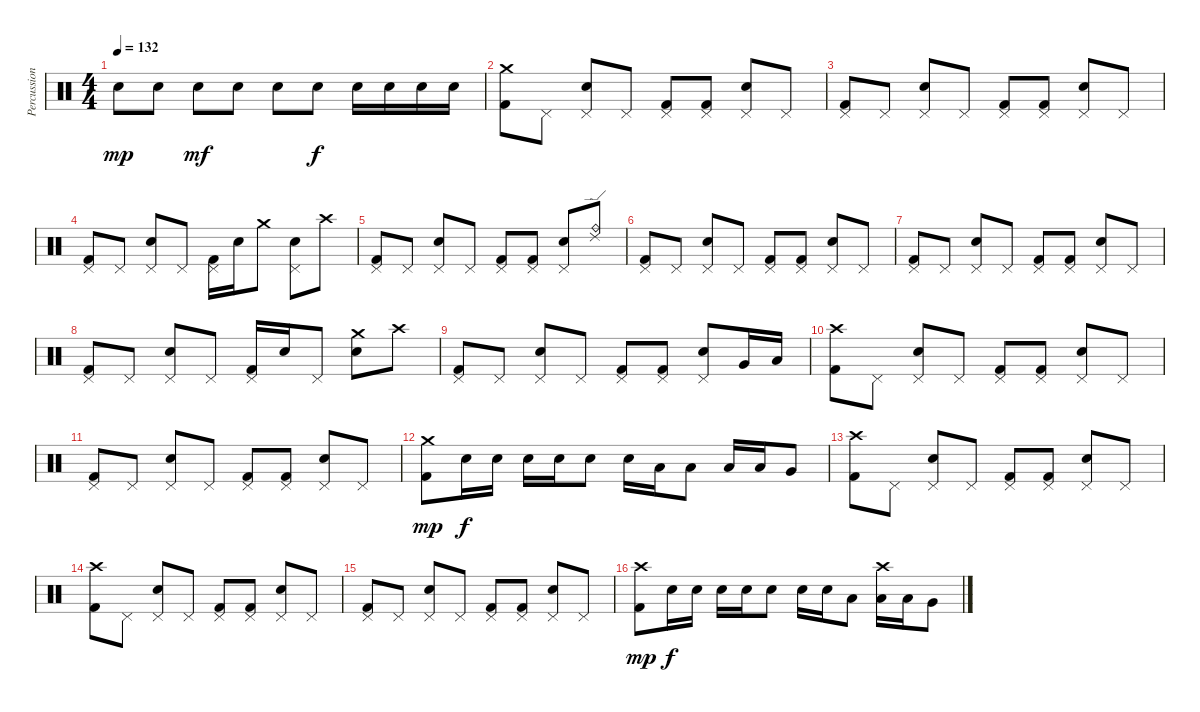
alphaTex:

\track ("Percussions" "Percussion") {instrument percussion}
\staff {score}
\articulation defaults
\ts (4 4)
\tempo 132
\clef neutral
\ks c "Electric Snare (hit)".8{dy mp} "Electric Snare (hit)".8 "Electric Snare (hit)".8{dy mf} "Electric Snare (hit)".8 "Electric Snare (hit)".8 "Electric Snare (hit)".8{dy f} "Electric Snare (hit)".16 "Electric Snare (hit)".16 "Electric Snare (hit)".16 "Electric Snare (hit)".16
|
("Crash medium (hit)" "Kick (hit) 2").8 "Pedal Hi-Hat (hit)".8 ("Pedal Hi-Hat (hit)" "Electric Snare (hit)").8 "Pedal Hi-Hat (hit)".8 ("Pedal Hi-Hat (hit)" "Kick (hit) 2").8 ("Pedal Hi-Hat (hit)" "Kick (hit) 2").8 ("Pedal Hi-Hat (hit)" "Electric Snare (hit)").8 "Pedal Hi-Hat (hit)".8 |
("Pedal Hi-Hat (hit)" "Kick (hit) 2").8 "Pedal Hi-Hat (hit)".8 ("Pedal Hi-Hat (hit)" "Electric Snare (hit)").8 "Pedal Hi-Hat (hit)".8 ("Pedal Hi-Hat (hit)" "Kick (hit) 2").8 ("Pedal Hi-Hat (hit)" "Kick (hit) 2").8 ("Pedal Hi-Hat (hit)" "Electric Snare (hit)").8 "Pedal Hi-Hat (hit)".8 |
("Pedal Hi-Hat (hit)" "Kick (hit) 2").8 "Pedal Hi-Hat (hit)".8 ("Pedal Hi-Hat (hit)" "Electric Snare (hit)").8 "Pedal Hi-Hat (hit)".8 ("Pedal Hi-Hat (hit)" "Kick (hit) 2").16 "Electric Snare (hit)".16 "Crash medium (hit)".8 ("Pedal Hi-Hat (hit)" "Electric Snare (hit)").8 "Crash high (hit)".8 |
("Pedal Hi-Hat (hit)" "Kick (hit) 2").8 "Pedal Hi-Hat (hit)".8 ("Pedal Hi-Hat (hit)" "Electric Snare (hit)").8 "Pedal Hi-Hat (hit)".8 ("Pedal Hi-Hat (hit)" "Kick (hit) 2").8 ("Pedal Hi-Hat (hit)" "Kick (hit) 2").8 ("Pedal Hi-Hat (hit)" "Electric Snare (hit)").8 ("Ride (bell)" "Ride (edge) 2").8 |
("Pedal Hi-Hat (hit)" "Kick (hit) 2").8 "Pedal Hi-Hat (hit)".8 ("Pedal Hi-Hat (hit)" "Electric Snare (hit)").8 "Pedal Hi-Hat (hit)".8 ("Pedal Hi-Hat (hit)" "Kick (hit) 2").8 ("Pedal Hi-Hat (hit)" "Kick (hit) 2").8 ("Pedal Hi-Hat (hit)" "Electric Snare (hit)").8 "Pedal Hi-Hat (hit)".8 |
("Pedal Hi-Hat (hit)" "Kick (hit) 2").8 "Pedal Hi-Hat (hit)".8 ("Pedal Hi-Hat (hit)" "Electric Snare (hit)").8 "Pedal Hi-Hat (hit)".8 ("Pedal Hi-Hat (hit)" "Kick (hit) 2").8 ("Pedal Hi-Hat (hit)" "Kick (hit) 2").8 ("Pedal Hi-Hat (hit)" "Electric Snare (hit)").8 "Pedal Hi-Hat (hit)".8 |
("Pedal Hi-Hat (hit)" "Kick (hit) 2").8 "Pedal Hi-Hat (hit)".8 ("Pedal Hi-Hat (hit)" "Electric Snare (hit)").8 "Pedal Hi-Hat (hit)".8 ("Pedal Hi-Hat (hit)" "Kick (hit) 2").16 "Electric Snare (hit)".16 "Pedal Hi-Hat (hit)".8 ("Crash medium (hit)" "Electric Snare (hit)").8 "Crash high (hit)".8 |
("Pedal Hi-Hat (hit)" "Kick (hit) 2").8 "Pedal Hi-Hat (hit)".8 ("Pedal Hi-Hat (hit)" "Electric Snare (hit)").8 "Pedal Hi-Hat (hit)".8 ("Pedal Hi-Hat (hit)" "Kick (hit) 2").8 ("Pedal Hi-Hat (hit)" "Kick (hit) 2").8 ("Pedal Hi-Hat (hit)" "Electric Snare (hit)").8 "Very Low Tom (hit)".16 "Low Floor Tom (hit)".16 |
("Crash high (hit)" "Kick (hit) 2").8 "Pedal Hi-Hat (hit)".8 ("Pedal Hi-Hat (hit)" "Electric Snare (hit)").8 "Pedal Hi-Hat (hit)".8 ("Pedal Hi-Hat (hit)" "Kick (hit) 2").8 ("Pedal Hi-Hat (hit)" "Kick (hit) 2").8 ("Pedal Hi-Hat (hit)" "Electric Snare (hit)").8 "Pedal Hi-Hat (hit)".8 |
("Pedal Hi-Hat (hit)" "Kick (hit) 2").8 "Pedal Hi-Hat (hit)".8 ("Pedal Hi-Hat (hit)" "Electric Snare (hit)").8 "Pedal Hi-Hat (hit)".8 ("Pedal Hi-Hat (hit)" "Kick (hit) 2").8 ("Pedal Hi-Hat (hit)" "Kick (hit) 2").8 ("Pedal Hi-Hat (hit)" "Electric Snare (hit)").8 "Pedal Hi-Hat (hit)".8 |
("Crash medium (hit)" "Kick (hit) 2").8{dy mp} "Electric Snare (hit)".16{dy f} "Electric Snare (hit)".16 "Electric Snare (hit)".16 "Electric Snare (hit)".16 "Electric Snare (hit)".8 "Electric Snare (hit)".16 "Low Tom (hit)".16 "Low Tom (hit)".8 "Low Tom (hit)".16 "Low Tom (hit)".16 "Very Low Tom (hit)".8 |
("Crash high (hit)" "Kick (hit) 2").8 "Pedal Hi-Hat (hit)".8 ("Pedal Hi-Hat (hit)" "Electric Snare (hit)").8 "Pedal Hi-Hat (hit)".8 ("Pedal Hi-Hat (hit)" "Kick (hit) 2").8 ("Pedal Hi-Hat (hit)" "Kick (hit) 2").8 ("Pedal Hi-Hat (hit)" "Electric Snare (hit)").8 "Pedal Hi-Hat (hit)".8 |
("Crash high (hit)" "Kick (hit) 2").8 "Pedal Hi-Hat (hit)".8 ("Pedal Hi-Hat (hit)" "Electric Snare (hit)").8 "Pedal Hi-Hat (hit)".8 ("Pedal Hi-Hat (hit)" "Kick (hit) 2").8 ("Pedal Hi-Hat (hit)" "Kick (hit) 2").8 ("Pedal Hi-Hat (hit)" "Electric Snare (hit)").8 "Pedal Hi-Hat (hit)".8 |
("Pedal Hi-Hat (hit)" "Kick (hit) 2").8 "Pedal Hi-Hat (hit)".8 ("Pedal Hi-Hat (hit)" "Electric Snare (hit)").8 "Pedal Hi-Hat (hit)".8 ("Pedal Hi-Hat (hit)" "Kick (hit) 2").8 ("Pedal Hi-Hat (hit)" "Kick (hit) 2").8 ("Pedal Hi-Hat (hit)" "Electric Snare (hit)").8 "Pedal Hi-Hat (hit)".8 |
("Crash high (hit)" "Kick (hit) 2").8{dy mp} "Electric Snare (hit)".16{dy f} "Electric Snare (hit)".16 "Electric Snare (hit)".16 "Electric Snare (hit)".16 "Electric Snare (hit)".8 "Electric Snare (hit)".16 "Electric Snare (hit)".16 "Low Tom (hit)".8 ("Crash high (hit)" "Low Tom (hit)").16 "Low Tom (hit)".16 "Very Low Tom (hit)".8
